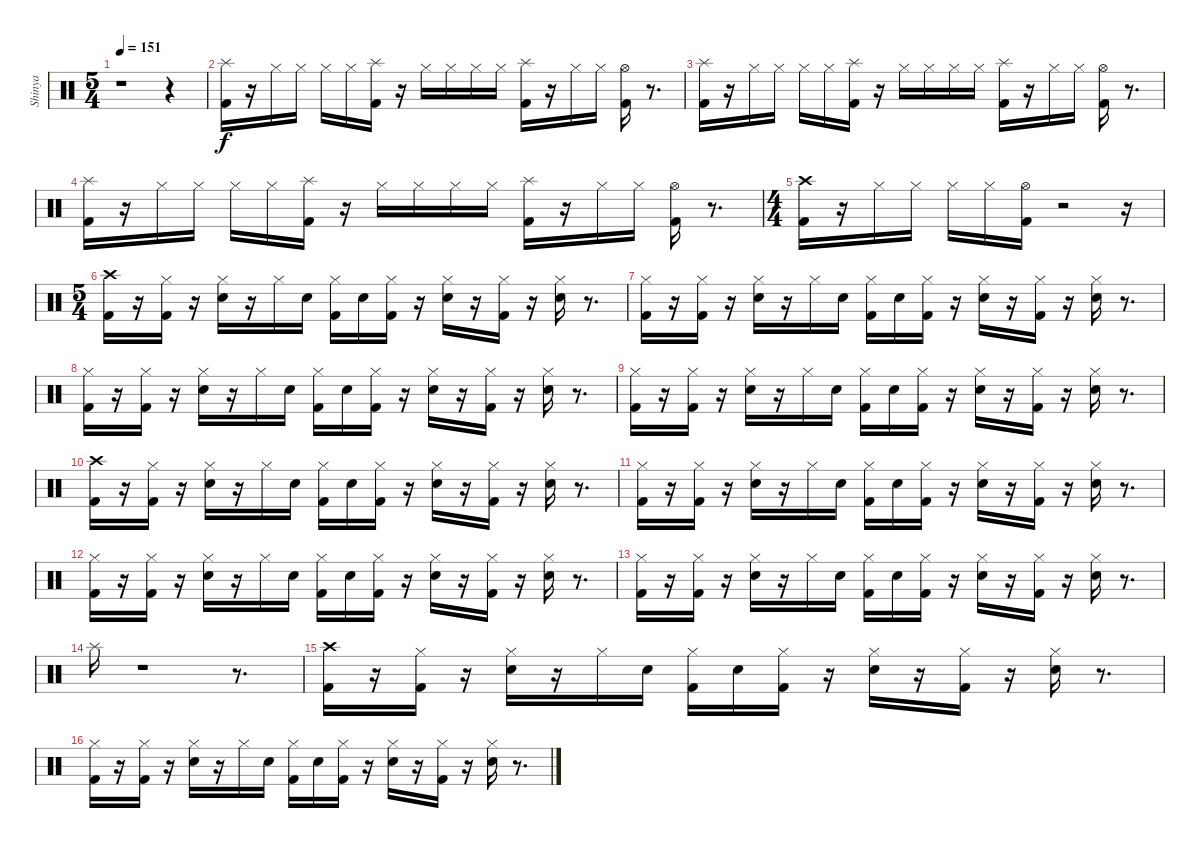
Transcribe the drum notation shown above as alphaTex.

\track ("Shinya" "Shinya") {instrument percussion}
\staff {score}
\articulation defaults
\ts (5 4)
\tempo 151
\clef neutral
\ks c
r.1{dy f} r.4 |
("Kick (hit) 2" "Splash (hit)").16 r.16 "Hi-Hat (closed)".16 "Hi-Hat (closed)".16 "Hi-Hat (closed)".16 "Hi-Hat (closed)".16 ("Kick (hit) 2" "Splash (hit)").16 r.16 "Hi-Hat (closed)".16 "Hi-Hat (closed)".16 "Hi-Hat (closed)".16 "Hi-Hat (closed)".16 ("Kick (hit) 2" "Splash (hit)").16 r.16 "Hi-Hat (closed)".16 "Hi-Hat (closed)".16 ("Hi-Hat (open)" "Kick (hit) 2").16 r.8{d} |
("Kick (hit) 2" "Splash (hit)").16 r.16 "Hi-Hat (closed)".16 "Hi-Hat (closed)".16 "Hi-Hat (closed)".16 "Hi-Hat (closed)".16 ("Kick (hit) 2" "Splash (hit)").16 r.16 "Hi-Hat (closed)".16 "Hi-Hat (closed)".16 "Hi-Hat (closed)".16 "Hi-Hat (closed)".16 ("Kick (hit) 2" "Splash (hit)").16 r.16 "Hi-Hat (closed)".16 "Hi-Hat (closed)".16 ("Hi-Hat (open)" "Kick (hit) 2").16 r.8{d} |
("Kick (hit) 2" "Splash (hit)").16 r.16 "Hi-Hat (closed)".16 "Hi-Hat (closed)".16 "Hi-Hat (closed)".16 "Hi-Hat (closed)".16 ("Kick (hit) 2" "Splash (hit)").16 r.16 "Hi-Hat (closed)".16 "Hi-Hat (closed)".16 "Hi-Hat (closed)".16 "Hi-Hat (closed)".16 ("Kick (hit) 2" "Splash (hit)").16 r.16 "Hi-Hat (closed)".16 "Hi-Hat (closed)".16 ("Hi-Hat (open)" "Kick (hit) 2").16 r.8{d} |
\ts (4 4)
("Crash high (hit)" "Kick (hit) 2").16 r.16 "Hi-Hat (closed)".16 "Hi-Hat (closed)".16 "Hi-Hat (closed)".16 "Hi-Hat (closed)".16 ("Hi-Hat (open)" "Kick (hit) 2").16 r.2 r.16 |
\ts (5 4)
("Kick (hit) 2" "Crash high (hit)").16 r.16 ("Kick (hit) 2" "Hi-Hat (closed)").16 r.16 ("Snare (hit) 2" "Hi-Hat (closed)").16 r.16 "Hi-Hat (closed)".16 "Snare (hit) 2".16 ("Hi-Hat (closed)" "Kick (hit) 2").16 "Snare (hit) 2".16 ("Hi-Hat (closed)" "Kick (hit) 2").16 r.16 ("Snare (hit) 2" "Hi-Hat (closed)").16 r.16 ("Kick (hit) 2" "Hi-Hat (closed)").16 r.16 ("Snare (hit) 2" "Hi-Hat (closed)").16 r.8{d} |
("Kick (hit) 2" "Hi-Hat (closed)").16 r.16 ("Kick (hit) 2" "Hi-Hat (closed)").16 r.16 ("Snare (hit) 2" "Hi-Hat (closed)").16 r.16 "Hi-Hat (closed)".16 "Snare (hit) 2".16 ("Hi-Hat (closed)" "Kick (hit) 2").16 "Snare (hit) 2".16 ("Hi-Hat (closed)" "Kick (hit) 2").16 r.16 ("Snare (hit) 2" "Hi-Hat (closed)").16 r.16 ("Kick (hit) 2" "Hi-Hat (closed)").16 r.16 ("Snare (hit) 2" "Hi-Hat (closed)").16 r.8{d} |
("Kick (hit) 2" "Hi-Hat (closed)").16 r.16 ("Kick (hit) 2" "Hi-Hat (closed)").16 r.16 ("Snare (hit) 2" "Hi-Hat (closed)").16 r.16 "Hi-Hat (closed)".16 "Snare (hit) 2".16 ("Hi-Hat (closed)" "Kick (hit) 2").16 "Snare (hit) 2".16 ("Hi-Hat (closed)" "Kick (hit) 2").16 r.16 ("Snare (hit) 2" "Hi-Hat (closed)").16 r.16 ("Kick (hit) 2" "Hi-Hat (closed)").16 r.16 ("Snare (hit) 2" "Hi-Hat (closed)").16 r.8{d} |
("Kick (hit) 2" "Hi-Hat (closed)").16 r.16 ("Kick (hit) 2" "Hi-Hat (closed)").16 r.16 ("Snare (hit) 2" "Hi-Hat (closed)").16 r.16 "Hi-Hat (closed)".16 "Snare (hit) 2".16 ("Hi-Hat (closed)" "Kick (hit) 2").16 "Snare (hit) 2".16 ("Hi-Hat (closed)" "Kick (hit) 2").16 r.16 ("Snare (hit) 2" "Hi-Hat (closed)").16 r.16 ("Kick (hit) 2" "Hi-Hat (closed)").16 r.16 ("Snare (hit) 2" "Hi-Hat (closed)").16 r.8{d} |
("Kick (hit) 2" "Crash high (hit)").16 r.16 ("Kick (hit) 2" "Hi-Hat (closed)").16 r.16 ("Snare (hit) 2" "Hi-Hat (closed)").16 r.16 "Hi-Hat (closed)".16 "Snare (hit) 2".16 ("Hi-Hat (closed)" "Kick (hit) 2").16 "Snare (hit) 2".16 ("Hi-Hat (closed)" "Kick (hit) 2").16 r.16 ("Snare (hit) 2" "Hi-Hat (closed)").16 r.16 ("Kick (hit) 2" "Hi-Hat (closed)").16 r.16 ("Snare (hit) 2" "Hi-Hat (closed)").16 r.8{d} |
("Kick (hit) 2" "Hi-Hat (closed)").16 r.16 ("Kick (hit) 2" "Hi-Hat (closed)").16 r.16 ("Snare (hit) 2" "Hi-Hat (closed)").16 r.16 "Hi-Hat (closed)".16 "Snare (hit) 2".16 ("Hi-Hat (closed)" "Kick (hit) 2").16 "Snare (hit) 2".16 ("Hi-Hat (closed)" "Kick (hit) 2").16 r.16 ("Snare (hit) 2" "Hi-Hat (closed)").16 r.16 ("Kick (hit) 2" "Hi-Hat (closed)").16 r.16 ("Snare (hit) 2" "Hi-Hat (closed)").16 r.8{d} |
("Kick (hit) 2" "Hi-Hat (closed)").16 r.16 ("Kick (hit) 2" "Hi-Hat (closed)").16 r.16 ("Snare (hit) 2" "Hi-Hat (closed)").16 r.16 "Hi-Hat (closed)".16 "Snare (hit) 2".16 ("Hi-Hat (closed)" "Kick (hit) 2").16 "Snare (hit) 2".16 ("Hi-Hat (closed)" "Kick (hit) 2").16 r.16 ("Snare (hit) 2" "Hi-Hat (closed)").16 r.16 ("Kick (hit) 2" "Hi-Hat (closed)").16 r.16 ("Snare (hit) 2" "Hi-Hat (closed)").16 r.8{d} |
("Kick (hit) 2" "Hi-Hat (closed)").16 r.16 ("Kick (hit) 2" "Hi-Hat (closed)").16 r.16 ("Snare (hit) 2" "Hi-Hat (closed)").16 r.16 "Hi-Hat (closed)".16 "Snare (hit) 2".16 ("Hi-Hat (closed)" "Kick (hit) 2").16 "Snare (hit) 2".16 ("Hi-Hat (closed)" "Kick (hit) 2").16 r.16 ("Snare (hit) 2" "Hi-Hat (closed)").16 r.16 ("Kick (hit) 2" "Hi-Hat (closed)").16 r.16 ("Snare (hit) 2" "Hi-Hat (closed)").16 r.8{d} |
"Splash (hit)".16 r.1 r.8{d} |
("Kick (hit) 2" "Crash high (hit)").16 r.16 ("Kick (hit) 2" "Hi-Hat (closed)").16 r.16 ("Snare (hit) 2" "Hi-Hat (closed)").16 r.16 "Hi-Hat (closed)".16 "Snare (hit) 2".16 ("Hi-Hat (closed)" "Kick (hit) 2").16 "Snare (hit) 2".16 ("Hi-Hat (closed)" "Kick (hit) 2").16 r.16 ("Snare (hit) 2" "Hi-Hat (closed)").16 r.16 ("Kick (hit) 2" "Hi-Hat (closed)").16 r.16 ("Snare (hit) 2" "Hi-Hat (closed)").16 r.8{d} |
("Kick (hit) 2" "Hi-Hat (closed)").16 r.16 ("Kick (hit) 2" "Hi-Hat (closed)").16 r.16 ("Snare (hit) 2" "Hi-Hat (closed)").16 r.16 "Hi-Hat (closed)".16 "Snare (hit) 2".16 ("Hi-Hat (closed)" "Kick (hit) 2").16 "Snare (hit) 2".16 ("Hi-Hat (closed)" "Kick (hit) 2").16 r.16 ("Snare (hit) 2" "Hi-Hat (closed)").16 r.16 ("Kick (hit) 2" "Hi-Hat (closed)").16 r.16 ("Snare (hit) 2" "Hi-Hat (closed)").16 r.8{d}
